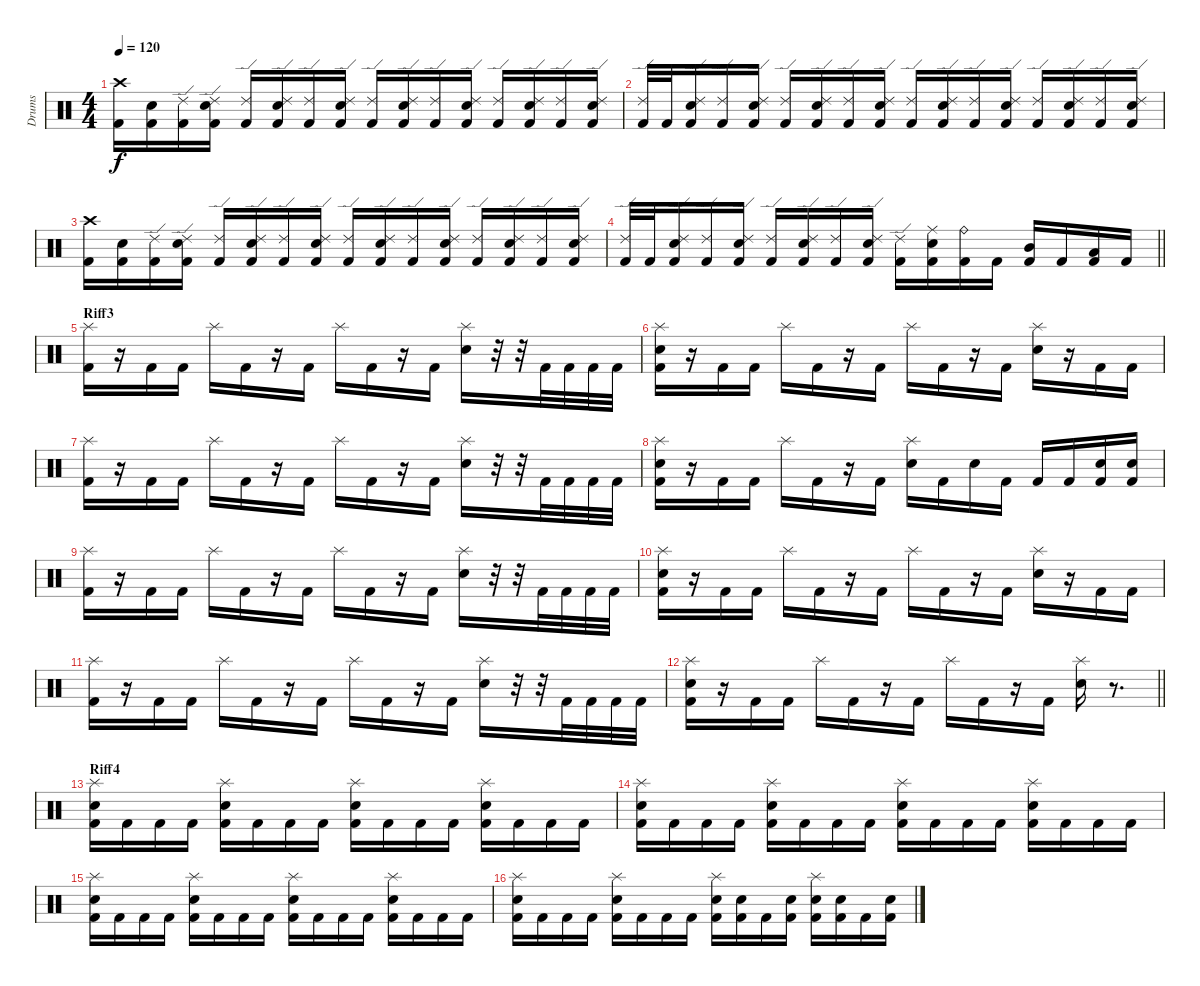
\track ("Drums" "Drums") {instrument percussion}
\staff {score}
\articulation defaults
\ts (4 4)
\tempo 120
\clef neutral
\ks c
("Kick (hit) 2" "Crash high (hit)").16{dy f} ("Kick (hit) 2" "Snare (hit) 2").16 ("Kick (hit) 2" "Ride (edge) 2").16 ("Kick (hit) 2" "Ride (edge) 2" "Snare (hit) 2").16 ("Kick (hit) 2" "Ride (edge) 2").16 ("Kick (hit) 2" "Ride (edge) 2" "Snare (hit) 2").16 ("Kick (hit) 2" "Ride (edge) 2").16 ("Kick (hit) 2" "Ride (edge) 2" "Snare (hit) 2").16 ("Kick (hit) 2" "Ride (edge) 2").16 ("Kick (hit) 2" "Ride (edge) 2" "Snare (hit) 2").16 ("Kick (hit) 2" "Ride (edge) 2").16 ("Kick (hit) 2" "Ride (edge) 2" "Snare (hit) 2").16 ("Kick (hit) 2" "Ride (edge) 2").16 ("Kick (hit) 2" "Ride (edge) 2" "Snare (hit) 2").16 ("Kick (hit) 2" "Ride (edge) 2").16 ("Kick (hit) 2" "Ride (edge) 2" "Snare (hit) 2").16 |
("Kick (hit) 2" "Ride (edge) 2").32 "Kick (hit) 2".32 ("Kick (hit) 2" "Ride (edge) 2" "Snare (hit) 2").16 ("Kick (hit) 2" "Ride (edge) 2").16 ("Kick (hit) 2" "Ride (edge) 2" "Snare (hit) 2").16 ("Kick (hit) 2" "Ride (edge) 2").16 ("Kick (hit) 2" "Ride (edge) 2" "Snare (hit) 2").16 ("Kick (hit) 2" "Ride (edge) 2").16 ("Kick (hit) 2" "Ride (edge) 2" "Snare (hit) 2").16 ("Kick (hit) 2" "Ride (edge) 2").16 ("Kick (hit) 2" "Ride (edge) 2" "Snare (hit) 2").16 ("Kick (hit) 2" "Ride (edge) 2").16 ("Kick (hit) 2" "Ride (edge) 2" "Snare (hit) 2").16 ("Kick (hit) 2" "Ride (edge) 2").16 ("Kick (hit) 2" "Ride (edge) 2" "Snare (hit) 2").16 ("Kick (hit) 2" "Ride (edge) 2").16 ("Kick (hit) 2" "Ride (edge) 2" "Snare (hit) 2").16 |
("Kick (hit) 2" "Crash high (hit)").16 ("Kick (hit) 2" "Snare (hit) 2").16 ("Kick (hit) 2" "Ride (edge) 2").16 ("Kick (hit) 2" "Ride (edge) 2" "Snare (hit) 2").16 ("Kick (hit) 2" "Ride (edge) 2").16 ("Kick (hit) 2" "Ride (edge) 2" "Snare (hit) 2").16 ("Kick (hit) 2" "Ride (edge) 2").16 ("Kick (hit) 2" "Ride (edge) 2" "Snare (hit) 2").16 ("Kick (hit) 2" "Ride (edge) 2").16 ("Kick (hit) 2" "Ride (edge) 2" "Snare (hit) 2").16 ("Kick (hit) 2" "Ride (edge) 2").16 ("Kick (hit) 2" "Ride (edge) 2" "Snare (hit) 2").16 ("Kick (hit) 2" "Ride (edge) 2").16 ("Kick (hit) 2" "Ride (edge) 2" "Snare (hit) 2").16 ("Kick (hit) 2" "Ride (edge) 2").16 ("Kick (hit) 2" "Ride (edge) 2" "Snare (hit) 2").16 |
\barLineRight lightlight
("Kick (hit) 2" "Ride (edge) 2").32 "Kick (hit) 2".32 ("Kick (hit) 2" "Ride (edge) 2" "Snare (hit) 2").16 ("Kick (hit) 2" "Ride (edge) 2").16 ("Kick (hit) 2" "Ride (edge) 2" "Snare (hit) 2").16 ("Kick (hit) 2" "Ride (edge) 2").16 ("Kick (hit) 2" "Ride (edge) 2" "Snare (hit) 2").16 ("Kick (hit) 2" "Ride (edge) 2").16 ("Kick (hit) 2" "Ride (edge) 2" "Snare (hit) 2").16 ("Kick (hit) 2" "Ride (edge) 2").16 ("Kick (hit) 2" "Ride (middle)" "Snare (hit) 2").16 ("Kick (hit) 2" "Ride (bell)").16 "Kick (hit) 2".16 ("Kick (hit) 2" "Mid Tom (hit)").16 "Kick (hit) 2".16 ("Kick (hit) 2" "Low Tom (hit)").16 "Kick (hit) 2".16 |
\section ("" "Riff3")
("Kick (hit) 2" "Splash (hit)").16 r.16 "Kick (hit) 2".16 "Kick (hit) 2".16 "Splash (hit)".16 "Kick (hit) 2".16 r.16 "Kick (hit) 2".16 "Splash (hit)".16 "Kick (hit) 2".16 r.16 "Kick (hit) 2".16 ("Splash (hit)" "Snare (hit) 2").16 r.32 r.32 "Kick (hit) 2".32 "Kick (hit) 2".32 "Kick (hit) 2".32 "Kick (hit) 2".32 |
("Kick (hit) 2" "Splash (hit)" "Snare (hit) 2").16 r.16 "Kick (hit) 2".16 "Kick (hit) 2".16 "Splash (hit)".16 "Kick (hit) 2".16 r.16 "Kick (hit) 2".16 "Splash (hit)".16 "Kick (hit) 2".16 r.16 "Kick (hit) 2".16 ("Splash (hit)" "Snare (hit) 2").16 r.16 "Kick (hit) 2".16 "Kick (hit) 2".16 |
("Kick (hit) 2" "Splash (hit)").16 r.16 "Kick (hit) 2".16 "Kick (hit) 2".16 "Splash (hit)".16 "Kick (hit) 2".16 r.16 "Kick (hit) 2".16 "Splash (hit)".16 "Kick (hit) 2".16 r.16 "Kick (hit) 2".16 ("Splash (hit)" "Snare (hit) 2").16 r.32 r.32 "Kick (hit) 2".32 "Kick (hit) 2".32 "Kick (hit) 2".32 "Kick (hit) 2".32 |
("Kick (hit) 2" "Splash (hit)" "Snare (hit) 2").16 r.16 "Kick (hit) 2".16 "Kick (hit) 2".16 "Splash (hit)".16 "Kick (hit) 2".16 r.16 "Kick (hit) 2".16 ("Splash (hit)" "Snare (hit) 2").16 "Kick (hit) 2".16 "Snare (hit) 2".16 "Kick (hit) 2".16 "Kick (hit) 2".16 "Kick (hit) 2".16 ("Kick (hit) 2" "Snare (hit) 2").16 ("Kick (hit) 2" "Snare (hit) 2").16 |
("Kick (hit) 2" "Splash (hit)").16 r.16 "Kick (hit) 2".16 "Kick (hit) 2".16 "Splash (hit)".16 "Kick (hit) 2".16 r.16 "Kick (hit) 2".16 "Splash (hit)".16 "Kick (hit) 2".16 r.16 "Kick (hit) 2".16 ("Splash (hit)" "Snare (hit) 2").16 r.32 r.32 "Kick (hit) 2".32 "Kick (hit) 2".32 "Kick (hit) 2".32 "Kick (hit) 2".32 |
("Kick (hit) 2" "Splash (hit)" "Snare (hit) 2").16 r.16 "Kick (hit) 2".16 "Kick (hit) 2".16 "Splash (hit)".16 "Kick (hit) 2".16 r.16 "Kick (hit) 2".16 "Splash (hit)".16 "Kick (hit) 2".16 r.16 "Kick (hit) 2".16 ("Splash (hit)" "Snare (hit) 2").16 r.16 "Kick (hit) 2".16 "Kick (hit) 2".16 |
("Kick (hit) 2" "Splash (hit)").16 r.16 "Kick (hit) 2".16 "Kick (hit) 2".16 "Splash (hit)".16 "Kick (hit) 2".16 r.16 "Kick (hit) 2".16 "Splash (hit)".16 "Kick (hit) 2".16 r.16 "Kick (hit) 2".16 ("Splash (hit)" "Snare (hit) 2").16 r.32 r.32 "Kick (hit) 2".32 "Kick (hit) 2".32 "Kick (hit) 2".32 "Kick (hit) 2".32 |
\barLineRight lightlight
("Kick (hit) 2" "Splash (hit)" "Snare (hit) 2").16 r.16 "Kick (hit) 2".16 "Kick (hit) 2".16 "Splash (hit)".16 "Kick (hit) 2".16 r.16 "Kick (hit) 2".16 "Splash (hit)".16 "Kick (hit) 2".16 r.16 "Kick (hit) 2".16 ("Splash (hit)" "Snare (hit) 2").16 r.8{d} |
\section ("" "Riff4")
("Kick (hit) 2" "Splash (hit)" "Snare (hit) 2").16 "Kick (hit) 2".16 "Kick (hit) 2".16 "Kick (hit) 2".16 ("Kick (hit) 2" "Splash (hit)" "Snare (hit) 2").16 "Kick (hit) 2".16 "Kick (hit) 2".16 "Kick (hit) 2".16 ("Kick (hit) 2" "Splash (hit)" "Snare (hit) 2").16 "Kick (hit) 2".16 "Kick (hit) 2".16 "Kick (hit) 2".16 ("Kick (hit) 2" "Splash (hit)" "Snare (hit) 2").16 "Kick (hit) 2".16 "Kick (hit) 2".16 "Kick (hit) 2".16 |
("Kick (hit) 2" "Splash (hit)" "Snare (hit) 2").16 "Kick (hit) 2".16 "Kick (hit) 2".16 "Kick (hit) 2".16 ("Kick (hit) 2" "Splash (hit)" "Snare (hit) 2").16 "Kick (hit) 2".16 "Kick (hit) 2".16 "Kick (hit) 2".16 ("Kick (hit) 2" "Splash (hit)" "Snare (hit) 2").16 "Kick (hit) 2".16 "Kick (hit) 2".16 "Kick (hit) 2".16 ("Kick (hit) 2" "Splash (hit)" "Snare (hit) 2").16 "Kick (hit) 2".16 "Kick (hit) 2".16 "Kick (hit) 2".16 |
("Kick (hit) 2" "Splash (hit)" "Snare (hit) 2").16 "Kick (hit) 2".16 "Kick (hit) 2".16 "Kick (hit) 2".16 ("Kick (hit) 2" "Splash (hit)" "Snare (hit) 2").16 "Kick (hit) 2".16 "Kick (hit) 2".16 "Kick (hit) 2".16 ("Kick (hit) 2" "Splash (hit)" "Snare (hit) 2").16 "Kick (hit) 2".16 "Kick (hit) 2".16 "Kick (hit) 2".16 ("Kick (hit) 2" "Splash (hit)" "Snare (hit) 2").16 "Kick (hit) 2".16 "Kick (hit) 2".16 "Kick (hit) 2".16 |
("Kick (hit) 2" "Splash (hit)" "Snare (hit) 2").16 "Kick (hit) 2".16 "Kick (hit) 2".16 "Kick (hit) 2".16 ("Kick (hit) 2" "Splash (hit)" "Snare (hit) 2").16 "Kick (hit) 2".16 "Kick (hit) 2".16 "Kick (hit) 2".16 ("Kick (hit) 2" "Splash (hit)" "Snare (hit) 2").16 ("Kick (hit) 2" "Snare (hit) 2").16 "Kick (hit) 2".16 ("Kick (hit) 2" "Snare (hit) 2").16 ("Kick (hit) 2" "Splash (hit)" "Snare (hit) 2").16 ("Kick (hit) 2" "Snare (hit) 2").16 "Kick (hit) 2".16 ("Kick (hit) 2" "Snare (hit) 2").16
